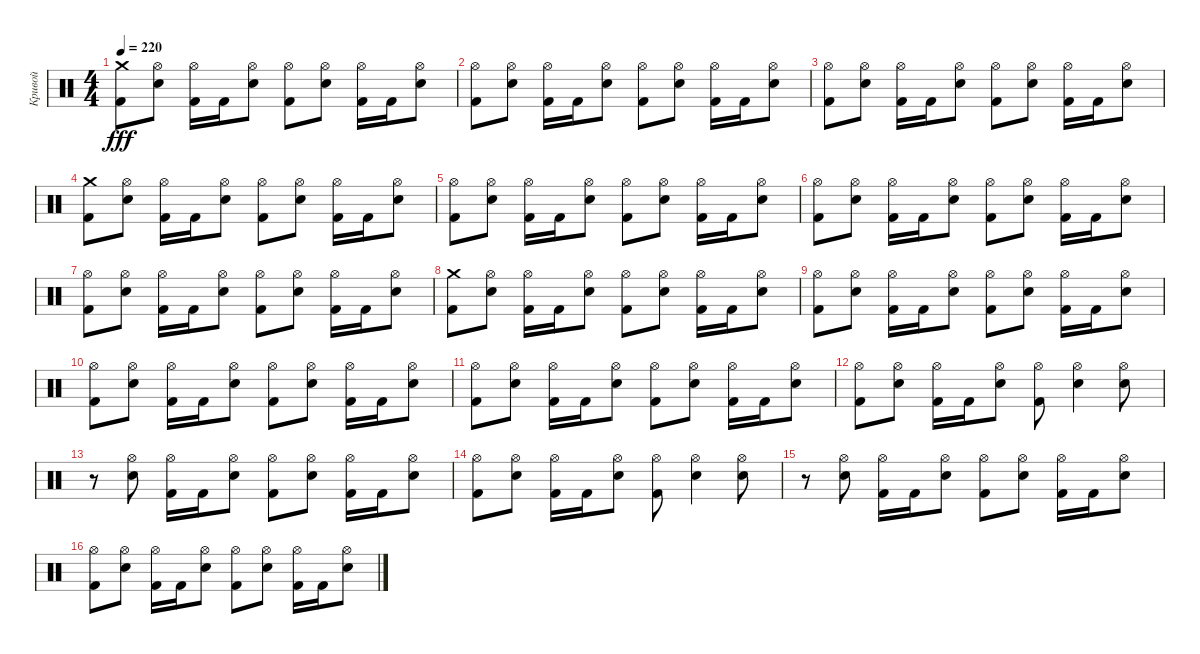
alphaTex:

\track ("Кривой" "Кривой") {instrument percussion}
\staff {score}
\articulation defaults
\ts (4 4)
\tempo 220
\clef neutral
\ks c
("Crash medium (hit)" "Kick (hit) 2").8{dy fff} ("Hi-Hat (open)" "Electric Snare (hit)").8 ("Hi-Hat (open)" "Kick (hit) 2").16 "Kick (hit) 2".16 ("Hi-Hat (open)" "Electric Snare (hit)").8 ("Hi-Hat (open)" "Kick (hit) 2").8 ("Hi-Hat (open)" "Electric Snare (hit)").8 ("Hi-Hat (open)" "Kick (hit) 2").16 "Kick (hit) 2".16 ("Hi-Hat (open)" "Electric Snare (hit)").8 |
("Hi-Hat (open)" "Kick (hit) 2").8 ("Hi-Hat (open)" "Electric Snare (hit)").8 ("Hi-Hat (open)" "Kick (hit) 2").16 "Kick (hit) 2".16 ("Hi-Hat (open)" "Electric Snare (hit)").8 ("Hi-Hat (open)" "Kick (hit) 2").8 ("Hi-Hat (open)" "Electric Snare (hit)").8 ("Hi-Hat (open)" "Kick (hit) 2").16 "Kick (hit) 2".16 ("Hi-Hat (open)" "Electric Snare (hit)").8 |
("Hi-Hat (open)" "Kick (hit) 2").8 ("Hi-Hat (open)" "Electric Snare (hit)").8 ("Hi-Hat (open)" "Kick (hit) 2").16 "Kick (hit) 2".16 ("Hi-Hat (open)" "Electric Snare (hit)").8 ("Hi-Hat (open)" "Kick (hit) 2").8 ("Hi-Hat (open)" "Electric Snare (hit)").8 ("Hi-Hat (open)" "Kick (hit) 2").16 "Kick (hit) 2".16 ("Hi-Hat (open)" "Electric Snare (hit)").8 |
("Crash medium (hit)" "Kick (hit) 2").8 ("Hi-Hat (open)" "Electric Snare (hit)").8 ("Hi-Hat (open)" "Kick (hit) 2").16 "Kick (hit) 2".16 ("Hi-Hat (open)" "Electric Snare (hit)").8 ("Hi-Hat (open)" "Kick (hit) 2").8 ("Hi-Hat (open)" "Electric Snare (hit)").8 ("Hi-Hat (open)" "Kick (hit) 2").16 "Kick (hit) 2".16 ("Hi-Hat (open)" "Electric Snare (hit)").8 |
("Hi-Hat (open)" "Kick (hit) 2").8 ("Hi-Hat (open)" "Electric Snare (hit)").8 ("Hi-Hat (open)" "Kick (hit) 2").16 "Kick (hit) 2".16 ("Hi-Hat (open)" "Electric Snare (hit)").8 ("Hi-Hat (open)" "Kick (hit) 2").8 ("Hi-Hat (open)" "Electric Snare (hit)").8 ("Hi-Hat (open)" "Kick (hit) 2").16 "Kick (hit) 2".16 ("Hi-Hat (open)" "Electric Snare (hit)").8 |
("Hi-Hat (open)" "Kick (hit) 2").8 ("Hi-Hat (open)" "Electric Snare (hit)").8 ("Hi-Hat (open)" "Kick (hit) 2").16 "Kick (hit) 2".16 ("Hi-Hat (open)" "Electric Snare (hit)").8 ("Hi-Hat (open)" "Kick (hit) 2").8 ("Hi-Hat (open)" "Electric Snare (hit)").8 ("Hi-Hat (open)" "Kick (hit) 2").16 "Kick (hit) 2".16 ("Hi-Hat (open)" "Electric Snare (hit)").8 |
("Hi-Hat (open)" "Kick (hit) 2").8 ("Hi-Hat (open)" "Electric Snare (hit)").8 ("Hi-Hat (open)" "Kick (hit) 2").16 "Kick (hit) 2".16 ("Hi-Hat (open)" "Electric Snare (hit)").8 ("Hi-Hat (open)" "Kick (hit) 2").8 ("Hi-Hat (open)" "Electric Snare (hit)").8 ("Hi-Hat (open)" "Kick (hit) 2").16 "Kick (hit) 2".16 ("Hi-Hat (open)" "Electric Snare (hit)").8 |
("Crash medium (hit)" "Kick (hit) 2").8 ("Hi-Hat (open)" "Electric Snare (hit)").8 ("Hi-Hat (open)" "Kick (hit) 2").16 "Kick (hit) 2".16 ("Hi-Hat (open)" "Electric Snare (hit)").8 ("Hi-Hat (open)" "Kick (hit) 2").8 ("Hi-Hat (open)" "Electric Snare (hit)").8 ("Hi-Hat (open)" "Kick (hit) 2").16 "Kick (hit) 2".16 ("Hi-Hat (open)" "Electric Snare (hit)").8 |
("Hi-Hat (open)" "Kick (hit) 2").8 ("Hi-Hat (open)" "Electric Snare (hit)").8 ("Hi-Hat (open)" "Kick (hit) 2").16 "Kick (hit) 2".16 ("Hi-Hat (open)" "Electric Snare (hit)").8 ("Hi-Hat (open)" "Kick (hit) 2").8 ("Hi-Hat (open)" "Electric Snare (hit)").8 ("Hi-Hat (open)" "Kick (hit) 2").16 "Kick (hit) 2".16 ("Hi-Hat (open)" "Electric Snare (hit)").8 |
("Hi-Hat (open)" "Kick (hit) 2").8 ("Hi-Hat (open)" "Electric Snare (hit)").8 ("Hi-Hat (open)" "Kick (hit) 2").16 "Kick (hit) 2".16 ("Hi-Hat (open)" "Electric Snare (hit)").8 ("Hi-Hat (open)" "Kick (hit) 2").8 ("Hi-Hat (open)" "Electric Snare (hit)").8 ("Hi-Hat (open)" "Kick (hit) 2").16 "Kick (hit) 2".16 ("Hi-Hat (open)" "Electric Snare (hit)").8 |
("Hi-Hat (open)" "Kick (hit) 2").8 ("Hi-Hat (open)" "Electric Snare (hit)").8 ("Hi-Hat (open)" "Kick (hit) 2").16 "Kick (hit) 2".16 ("Hi-Hat (open)" "Electric Snare (hit)").8 ("Hi-Hat (open)" "Kick (hit) 2").8 ("Hi-Hat (open)" "Electric Snare (hit)").8 ("Hi-Hat (open)" "Kick (hit) 2").16 "Kick (hit) 2".16 ("Hi-Hat (open)" "Electric Snare (hit)").8 |
("Hi-Hat (open)" "Kick (hit) 2").8 ("Hi-Hat (open)" "Electric Snare (hit)").8 ("Hi-Hat (open)" "Kick (hit) 2").16 "Kick (hit) 2".16 ("Hi-Hat (open)" "Electric Snare (hit)").8 ("Hi-Hat (open)" "Kick (hit) 2").8 ("Hi-Hat (open)" "Electric Snare (hit)").4 ("Hi-Hat (open)" "Electric Snare (hit)").8 |
r.8 ("Hi-Hat (open)" "Electric Snare (hit)").8 ("Hi-Hat (open)" "Kick (hit) 2").16 "Kick (hit) 2".16 ("Hi-Hat (open)" "Electric Snare (hit)").8 ("Hi-Hat (open)" "Kick (hit) 2").8 ("Hi-Hat (open)" "Electric Snare (hit)").8 ("Hi-Hat (open)" "Kick (hit) 2").16 "Kick (hit) 2".16 ("Hi-Hat (open)" "Electric Snare (hit)").8 |
("Hi-Hat (open)" "Kick (hit) 2").8 ("Hi-Hat (open)" "Electric Snare (hit)").8 ("Hi-Hat (open)" "Kick (hit) 2").16 "Kick (hit) 2".16 ("Hi-Hat (open)" "Electric Snare (hit)").8 ("Hi-Hat (open)" "Kick (hit) 2").8 ("Hi-Hat (open)" "Electric Snare (hit)").4 ("Hi-Hat (open)" "Electric Snare (hit)").8 |
r.8 ("Hi-Hat (open)" "Electric Snare (hit)").8 ("Hi-Hat (open)" "Kick (hit) 2").16 "Kick (hit) 2".16 ("Hi-Hat (open)" "Electric Snare (hit)").8 ("Hi-Hat (open)" "Kick (hit) 2").8 ("Hi-Hat (open)" "Electric Snare (hit)").8 ("Hi-Hat (open)" "Kick (hit) 2").16 "Kick (hit) 2".16 ("Hi-Hat (open)" "Electric Snare (hit)").8 |
("Hi-Hat (open)" "Kick (hit) 2").8 ("Hi-Hat (open)" "Electric Snare (hit)").8 ("Hi-Hat (open)" "Kick (hit) 2").16 "Kick (hit) 2".16 ("Hi-Hat (open)" "Electric Snare (hit)").8 ("Hi-Hat (open)" "Kick (hit) 2").8 ("Hi-Hat (open)" "Electric Snare (hit)").8 ("Hi-Hat (open)" "Kick (hit) 2").16 "Kick (hit) 2".16 ("Hi-Hat (open)" "Electric Snare (hit)").8
